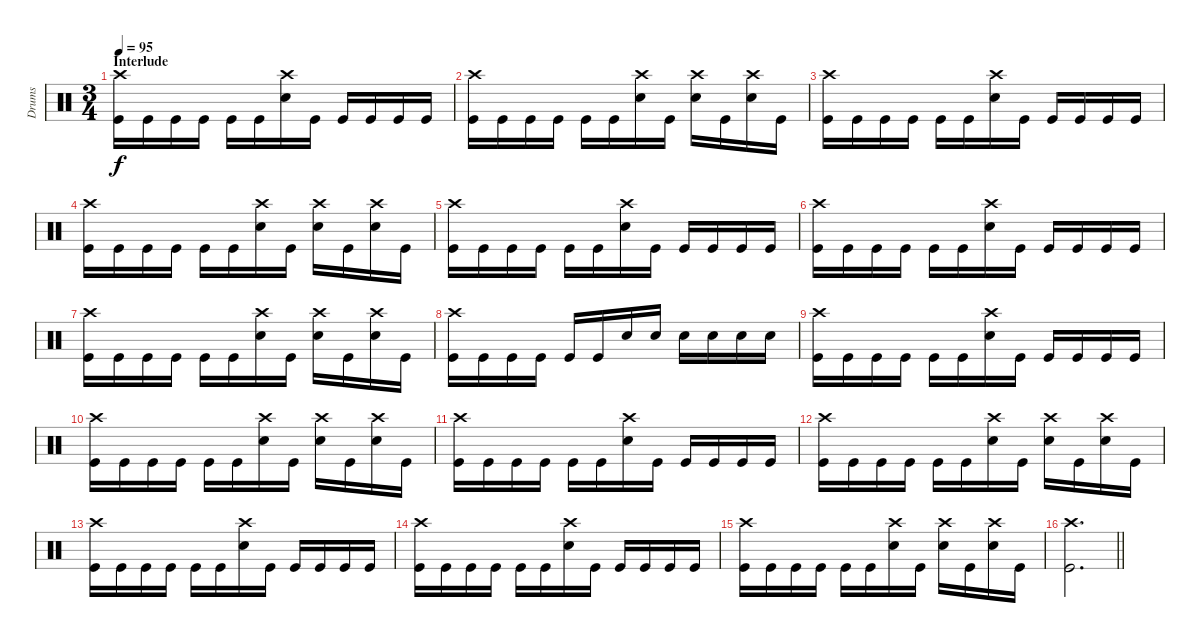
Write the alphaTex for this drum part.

\track ("Drums" "Drums") {instrument percussion}
\staff {score}
\articulation defaults
\ts (3 4)
\section ("" "Interlude")
\tempo 95
\clef neutral
\ks c
("Crash high (hit)" "Kick (hit)").16{dy f} "Kick (hit)".16 "Kick (hit)".16 "Kick (hit)".16 "Kick (hit)".16 "Kick (hit)".16 ("Crash high (hit)" "Electric Snare (hit)").16 "Kick (hit)".16 "Kick (hit)".16 "Kick (hit)".16 "Kick (hit)".16 "Kick (hit)".16 |
("Crash high (hit)" "Kick (hit)").16 "Kick (hit)".16 "Kick (hit)".16 "Kick (hit)".16 "Kick (hit)".16 "Kick (hit)".16 ("Crash high (hit)" "Electric Snare (hit)").16 "Kick (hit)".16 ("Crash high (hit)" "Electric Snare (hit)").16 "Kick (hit)".16 ("Crash high (hit)" "Electric Snare (hit)").16 "Kick (hit)".16 |
("Crash high (hit)" "Kick (hit)").16 "Kick (hit)".16 "Kick (hit)".16 "Kick (hit)".16 "Kick (hit)".16 "Kick (hit)".16 ("Crash high (hit)" "Electric Snare (hit)").16 "Kick (hit)".16 "Kick (hit)".16 "Kick (hit)".16 "Kick (hit)".16 "Kick (hit)".16 |
("Crash high (hit)" "Kick (hit)").16 "Kick (hit)".16 "Kick (hit)".16 "Kick (hit)".16 "Kick (hit)".16 "Kick (hit)".16 ("Crash high (hit)" "Electric Snare (hit)").16 "Kick (hit)".16 ("Crash high (hit)" "Electric Snare (hit)").16 "Kick (hit)".16 ("Crash high (hit)" "Electric Snare (hit)").16 "Kick (hit)".16 |
("Crash high (hit)" "Kick (hit)").16 "Kick (hit)".16 "Kick (hit)".16 "Kick (hit)".16 "Kick (hit)".16 "Kick (hit)".16 ("Crash high (hit)" "Electric Snare (hit)").16 "Kick (hit)".16 "Kick (hit)".16 "Kick (hit)".16 "Kick (hit)".16 "Kick (hit)".16 |
("Crash high (hit)" "Kick (hit)").16 "Kick (hit)".16 "Kick (hit)".16 "Kick (hit)".16 "Kick (hit)".16 "Kick (hit)".16 ("Crash high (hit)" "Electric Snare (hit)").16 "Kick (hit)".16 "Kick (hit)".16 "Kick (hit)".16 "Kick (hit)".16 "Kick (hit)".16 |
("Crash high (hit)" "Kick (hit)").16 "Kick (hit)".16 "Kick (hit)".16 "Kick (hit)".16 "Kick (hit)".16 "Kick (hit)".16 ("Crash high (hit)" "Electric Snare (hit)").16 "Kick (hit)".16 ("Crash high (hit)" "Electric Snare (hit)").16 "Kick (hit)".16 ("Crash high (hit)" "Electric Snare (hit)").16 "Kick (hit)".16 |
("Crash high (hit)" "Kick (hit)").16 "Kick (hit)".16 "Kick (hit)".16 "Kick (hit)".16 "Kick (hit)".16 "Kick (hit)".16 "Electric Snare (hit)".16 "Electric Snare (hit)".16 "Electric Snare (hit)".16 "Electric Snare (hit)".16 "Electric Snare (hit)".16 "Electric Snare (hit)".16 |
("Crash high (hit)" "Kick (hit)").16 "Kick (hit)".16 "Kick (hit)".16 "Kick (hit)".16 "Kick (hit)".16 "Kick (hit)".16 ("Crash high (hit)" "Electric Snare (hit)").16 "Kick (hit)".16 "Kick (hit)".16 "Kick (hit)".16 "Kick (hit)".16 "Kick (hit)".16 |
("Crash high (hit)" "Kick (hit)").16 "Kick (hit)".16 "Kick (hit)".16 "Kick (hit)".16 "Kick (hit)".16 "Kick (hit)".16 ("Crash high (hit)" "Electric Snare (hit)").16 "Kick (hit)".16 ("Crash high (hit)" "Electric Snare (hit)").16 "Kick (hit)".16 ("Crash high (hit)" "Electric Snare (hit)").16 "Kick (hit)".16 |
("Crash high (hit)" "Kick (hit)").16 "Kick (hit)".16 "Kick (hit)".16 "Kick (hit)".16 "Kick (hit)".16 "Kick (hit)".16 ("Crash high (hit)" "Electric Snare (hit)").16 "Kick (hit)".16 "Kick (hit)".16 "Kick (hit)".16 "Kick (hit)".16 "Kick (hit)".16 |
("Crash high (hit)" "Kick (hit)").16 "Kick (hit)".16 "Kick (hit)".16 "Kick (hit)".16 "Kick (hit)".16 "Kick (hit)".16 ("Crash high (hit)" "Electric Snare (hit)").16 "Kick (hit)".16 ("Crash high (hit)" "Electric Snare (hit)").16 "Kick (hit)".16 ("Crash high (hit)" "Electric Snare (hit)").16 "Kick (hit)".16 |
("Crash high (hit)" "Kick (hit)").16 "Kick (hit)".16 "Kick (hit)".16 "Kick (hit)".16 "Kick (hit)".16 "Kick (hit)".16 ("Crash high (hit)" "Electric Snare (hit)").16 "Kick (hit)".16 "Kick (hit)".16 "Kick (hit)".16 "Kick (hit)".16 "Kick (hit)".16 |
("Crash high (hit)" "Kick (hit)").16 "Kick (hit)".16 "Kick (hit)".16 "Kick (hit)".16 "Kick (hit)".16 "Kick (hit)".16 ("Crash high (hit)" "Electric Snare (hit)").16 "Kick (hit)".16 "Kick (hit)".16 "Kick (hit)".16 "Kick (hit)".16 "Kick (hit)".16 |
("Crash high (hit)" "Kick (hit)").16 "Kick (hit)".16 "Kick (hit)".16 "Kick (hit)".16 "Kick (hit)".16 "Kick (hit)".16 ("Crash high (hit)" "Electric Snare (hit)").16 "Kick (hit)".16 ("Crash high (hit)" "Electric Snare (hit)").16 "Kick (hit)".16 ("Crash high (hit)" "Electric Snare (hit)").16 "Kick (hit)".16 |
\barLineRight lightlight
("Crash high (hit)" "Kick (hit)").2{d}
